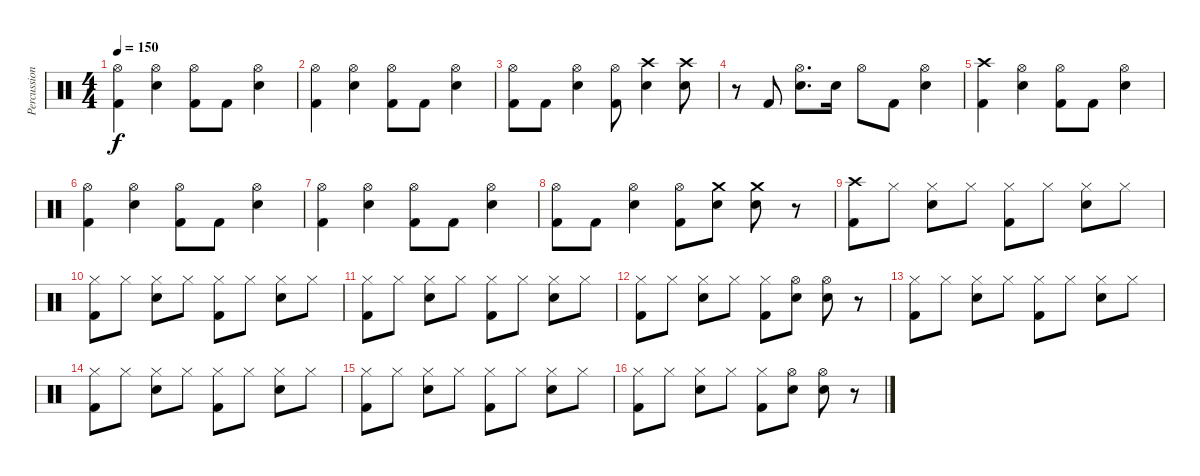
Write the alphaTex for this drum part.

\track ("Percussion" "Percussion") {instrument percussion}
\staff {score}
\articulation defaults
\ts (4 4)
\tempo 150
\clef neutral
\ks c
("Hi-Hat (open)" "Kick (hit) 2").4{dy f} ("Hi-Hat (open)" "Snare (hit) 2").4 ("Hi-Hat (open)" "Kick (hit) 2").8 "Kick (hit) 2".8 ("Hi-Hat (open)" "Snare (hit) 2").4 |
("Hi-Hat (open)" "Kick (hit) 2").4 ("Hi-Hat (open)" "Snare (hit) 2").4 ("Hi-Hat (open)" "Kick (hit) 2").8 "Kick (hit) 2".8 ("Hi-Hat (open)" "Snare (hit) 2").4 |
("Hi-Hat (open)" "Kick (hit) 2").8 "Kick (hit) 2".8 ("Hi-Hat (open)" "Snare (hit) 2").4 ("Hi-Hat (open)" "Kick (hit) 2").8 ("Crash high (hit)" "Snare (hit) 2").4 ("Crash high (hit)" "Snare (hit) 2").8 |
r.8 "Kick (hit) 2".8 ("Hi-Hat (open)" "Snare (hit) 2").8{d} "Snare (hit) 2".16 "Hi-Hat (open)".8 "Kick (hit) 2".8 ("Hi-Hat (open)" "Snare (hit) 2").4 |
("Crash high (hit)" "Kick (hit) 2").4 ("Hi-Hat (open)" "Snare (hit) 2").4 ("Hi-Hat (open)" "Kick (hit) 2").8 "Kick (hit) 2".8 ("Hi-Hat (open)" "Snare (hit) 2").4 |
("Hi-Hat (open)" "Kick (hit) 2").4 ("Hi-Hat (open)" "Snare (hit) 2").4 ("Hi-Hat (open)" "Kick (hit) 2").8 "Kick (hit) 2".8 ("Hi-Hat (open)" "Snare (hit) 2").4 |
("Hi-Hat (open)" "Kick (hit) 2").4 ("Hi-Hat (open)" "Snare (hit) 2").4 ("Hi-Hat (open)" "Kick (hit) 2").8 "Kick (hit) 2".8 ("Hi-Hat (open)" "Snare (hit) 2").4 |
("Hi-Hat (open)" "Kick (hit) 2").8 "Kick (hit) 2".8 ("Hi-Hat (open)" "Snare (hit) 2").4 ("Hi-Hat (open)" "Kick (hit) 2").8 ("Crash medium (hit)" "Snare (hit) 2").8 ("Crash medium (hit)" "Snare (hit) 2").8 r.8 |
("Crash high (hit)" "Kick (hit) 2").8 "Hi-Hat (closed)".8 ("Hi-Hat (closed)" "Snare (hit) 2").8 "Hi-Hat (closed)".8 ("Hi-Hat (closed)" "Kick (hit) 2").8 "Hi-Hat (closed)".8 ("Hi-Hat (closed)" "Snare (hit) 2").8 "Hi-Hat (closed)".8 |
("Hi-Hat (closed)" "Kick (hit) 2").8 "Hi-Hat (closed)".8 ("Hi-Hat (closed)" "Snare (hit) 2").8 "Hi-Hat (closed)".8 ("Hi-Hat (closed)" "Kick (hit) 2").8 "Hi-Hat (closed)".8 ("Hi-Hat (closed)" "Snare (hit) 2").8 "Hi-Hat (closed)".8 |
("Hi-Hat (closed)" "Kick (hit) 2").8 "Hi-Hat (closed)".8 ("Hi-Hat (closed)" "Snare (hit) 2").8 "Hi-Hat (closed)".8 ("Hi-Hat (closed)" "Kick (hit) 2").8 "Hi-Hat (closed)".8 ("Hi-Hat (closed)" "Snare (hit) 2").8 "Hi-Hat (closed)".8 |
("Hi-Hat (closed)" "Kick (hit) 2").8 "Hi-Hat (closed)".8 ("Hi-Hat (closed)" "Snare (hit) 2").8 "Hi-Hat (closed)".8 ("Hi-Hat (closed)" "Kick (hit) 2").8 ("Hi-Hat (open)" "Snare (hit) 2").8 ("Hi-Hat (open)" "Snare (hit) 2").8 r.8 |
("Hi-Hat (closed)" "Kick (hit) 2").8 "Hi-Hat (closed)".8 ("Hi-Hat (closed)" "Snare (hit) 2").8 "Hi-Hat (closed)".8 ("Hi-Hat (closed)" "Kick (hit) 2").8 "Hi-Hat (closed)".8 ("Hi-Hat (closed)" "Snare (hit) 2").8 "Hi-Hat (closed)".8 |
("Hi-Hat (closed)" "Kick (hit) 2").8 "Hi-Hat (closed)".8 ("Hi-Hat (closed)" "Snare (hit) 2").8 "Hi-Hat (closed)".8 ("Hi-Hat (closed)" "Kick (hit) 2").8 "Hi-Hat (closed)".8 ("Hi-Hat (closed)" "Snare (hit) 2").8 "Hi-Hat (closed)".8 |
("Hi-Hat (closed)" "Kick (hit) 2").8 "Hi-Hat (closed)".8 ("Hi-Hat (closed)" "Snare (hit) 2").8 "Hi-Hat (closed)".8 ("Hi-Hat (closed)" "Kick (hit) 2").8 "Hi-Hat (closed)".8 ("Hi-Hat (closed)" "Snare (hit) 2").8 "Hi-Hat (closed)".8 |
("Hi-Hat (closed)" "Kick (hit) 2").8 "Hi-Hat (closed)".8 ("Hi-Hat (closed)" "Snare (hit) 2").8 "Hi-Hat (closed)".8 ("Hi-Hat (closed)" "Kick (hit) 2").8 ("Hi-Hat (open)" "Snare (hit) 2").8 ("Hi-Hat (open)" "Snare (hit) 2").8 r.8
